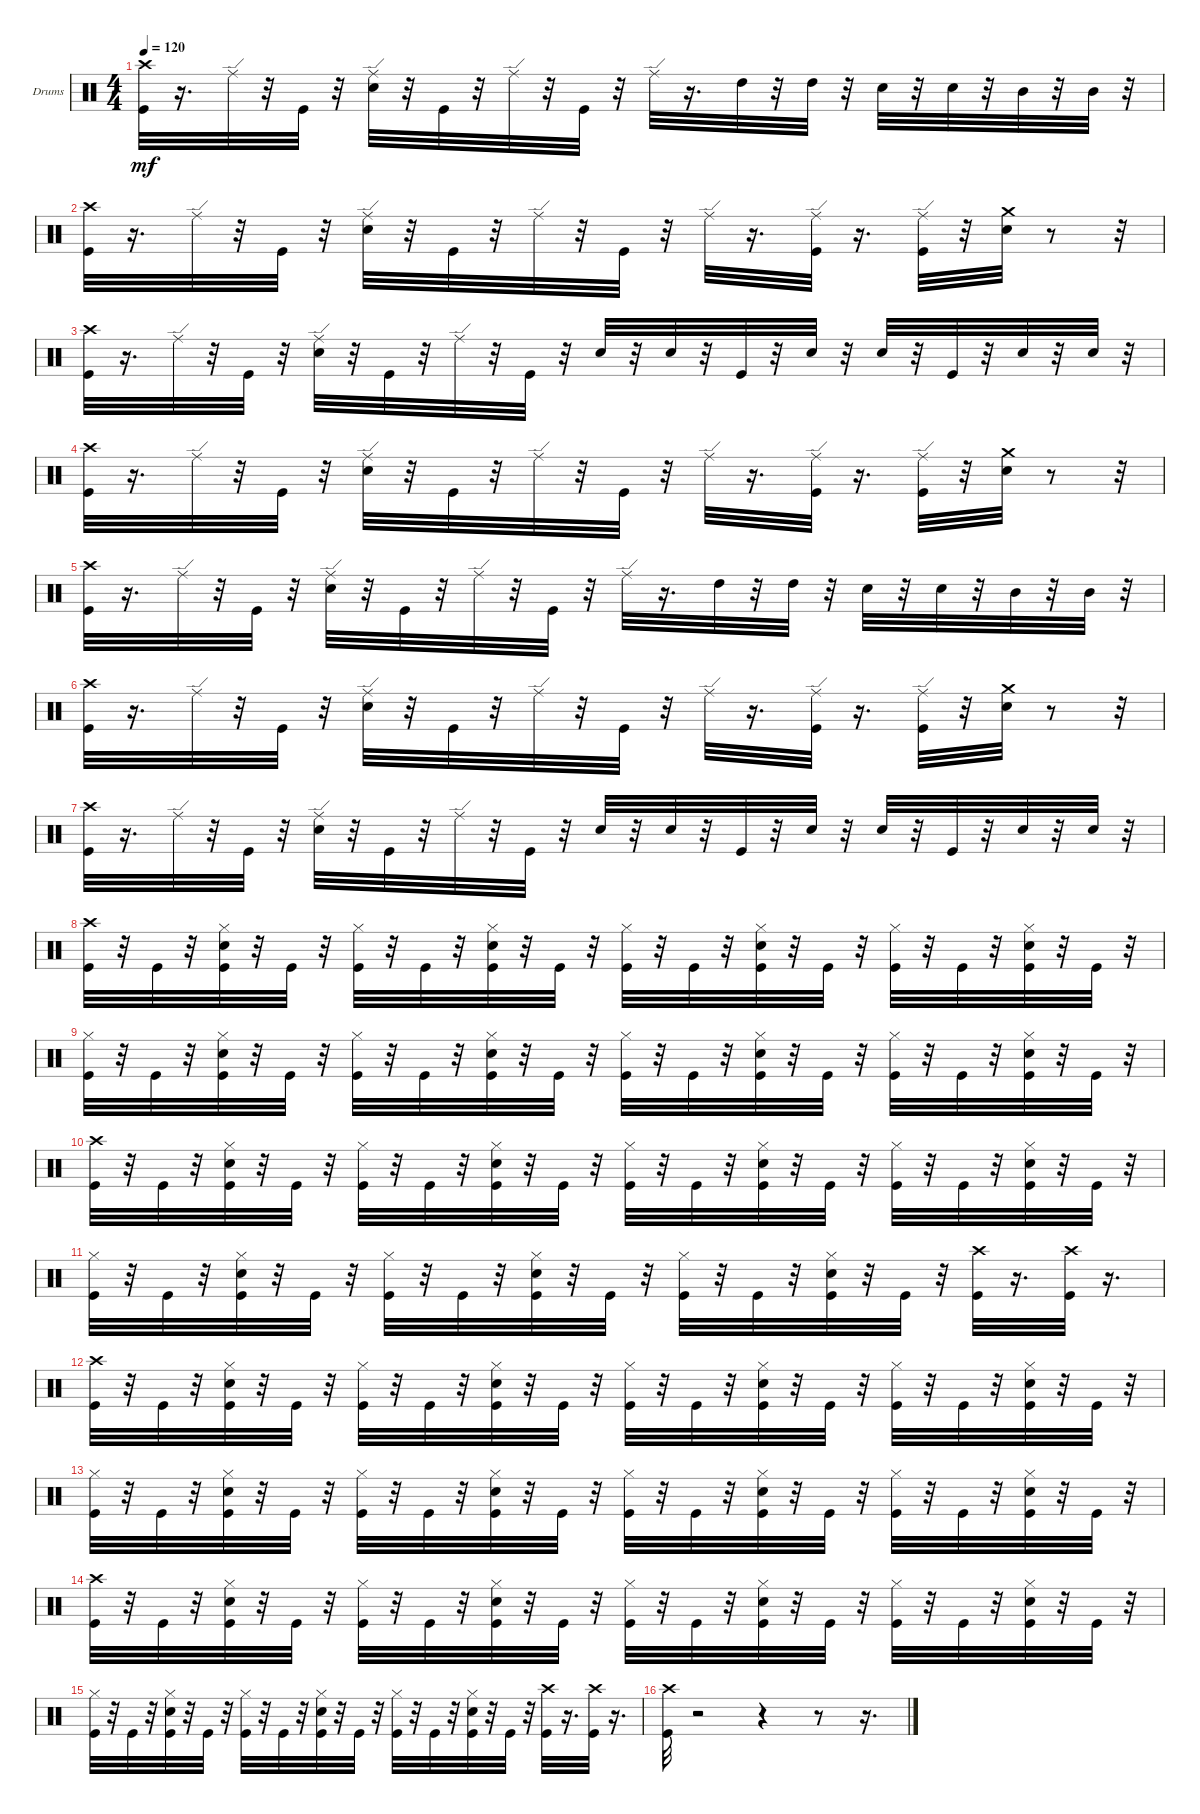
\bracketExtendMode groupsimilarinstruments
\firstSystemTrackNameOrientation horizontal
\otherSystemsTrackNameOrientation horizontal
\track ("" "Drums") {instrument percussion}
\staff {score}
\articulation defaults
\ts (4 4)
\tempo 120
\clef neutral
\ks c
("Crash high (hit)" "Kick (hit)").32{dy mf} r.16{d} "Ride (edge)".32 r.32 "Kick (hit)".32 r.32 ("Ride (edge)" "Snare (hit) 2").32 r.32 "Kick (hit)".32 r.32 "Ride (edge)".32 r.32 "Kick (hit)".32 r.32 "Ride (edge)".32 r.16{d} "High Tom (hit)".32 r.32 "High Tom (hit)".32 r.32 "Snare (hit) 2".32 r.32 "Snare (hit) 2".32 r.32 "Mid Tom (hit)".32 r.32 "Mid Tom (hit)".32 r.32 |
("Crash high (hit)" "Kick (hit)").32 r.16{d} "Ride (edge)".32 r.32 "Kick (hit)".32 r.32 ("Ride (edge)" "Snare (hit) 2").32 r.32 "Kick (hit)".32 r.32 "Ride (edge)".32 r.32 "Kick (hit)".32 r.32 "Ride (edge)".32 r.16{d} ("Ride (edge)" "Kick (hit)").32 r.16{d} ("Ride (edge)" "Kick (hit)").32 r.32 ("Crash medium (hit)" "Snare (hit) 2").32 r.8 r.32 |
("Crash high (hit)" "Kick (hit)").32 r.16{d} "Ride (edge)".32 r.32 "Kick (hit)".32 r.32 ("Snare (hit) 2" "Ride (edge)").32 r.32 "Kick (hit)".32 r.32 "Ride (edge)".32 r.32 "Kick (hit)".32 r.32 "Snare (hit) 2".32 r.32 "Snare (hit) 2".32 r.32 "Kick (hit)".32 r.32 "Snare (hit) 2".32 r.32 "Snare (hit) 2".32 r.32 "Kick (hit)".32 r.32 "Snare (hit) 2".32 r.32 "Snare (hit) 2".32 r.32 |
("Crash high (hit)" "Kick (hit)").32 r.16{d} "Ride (edge)".32 r.32 "Kick (hit)".32 r.32 ("Ride (edge)" "Snare (hit) 2").32 r.32 "Kick (hit)".32 r.32 "Ride (edge)".32 r.32 "Kick (hit)".32 r.32 "Ride (edge)".32 r.16{d} ("Ride (edge)" "Kick (hit)").32 r.16{d} ("Ride (edge)" "Kick (hit)").32 r.32 ("Crash medium (hit)" "Snare (hit) 2").32 r.8 r.32 |
("Crash high (hit)" "Kick (hit)").32 r.16{d} "Ride (edge)".32 r.32 "Kick (hit)".32 r.32 ("Ride (edge)" "Snare (hit) 2").32 r.32 "Kick (hit)".32 r.32 "Ride (edge)".32 r.32 "Kick (hit)".32 r.32 "Ride (edge)".32 r.16{d} "High Tom (hit)".32 r.32 "High Tom (hit)".32 r.32 "Snare (hit) 2".32 r.32 "Snare (hit) 2".32 r.32 "Mid Tom (hit)".32 r.32 "Mid Tom (hit)".32 r.32 |
("Crash high (hit)" "Kick (hit)").32 r.16{d} "Ride (edge)".32 r.32 "Kick (hit)".32 r.32 ("Ride (edge)" "Snare (hit) 2").32 r.32 "Kick (hit)".32 r.32 "Ride (edge)".32 r.32 "Kick (hit)".32 r.32 "Ride (edge)".32 r.16{d} ("Ride (edge)" "Kick (hit)").32 r.16{d} ("Ride (edge)" "Kick (hit)").32 r.32 ("Crash medium (hit)" "Snare (hit) 2").32 r.8 r.32 |
("Crash high (hit)" "Kick (hit)").32 r.16{d} "Ride (edge)".32 r.32 "Kick (hit)".32 r.32 ("Snare (hit) 2" "Ride (edge)").32 r.32 "Kick (hit)".32 r.32 "Ride (edge)".32 r.32 "Kick (hit)".32 r.32 "Snare (hit) 2".32 r.32 "Snare (hit) 2".32 r.32 "Kick (hit)".32 r.32 "Snare (hit) 2".32 r.32 "Snare (hit) 2".32 r.32 "Kick (hit)".32 r.32 "Snare (hit) 2".32 r.32 "Snare (hit) 2".32 r.32 |
("Kick (hit)" "Crash high (hit)").32 r.32 "Kick (hit)".32 r.32 ("Kick (hit)" "Hi-Hat (closed)" "Snare (hit) 2").32 r.32 "Kick (hit)".32 r.32 ("Hi-Hat (closed)" "Kick (hit)").32 r.32 "Kick (hit)".32 r.32 ("Hi-Hat (closed)" "Snare (hit) 2" "Kick (hit)").32 r.32 "Kick (hit)".32 r.32 ("Hi-Hat (closed)" "Kick (hit)").32 r.32 "Kick (hit)".32 r.32 ("Kick (hit)" "Hi-Hat (closed)" "Snare (hit) 2").32 r.32 "Kick (hit)".32 r.32 ("Hi-Hat (closed)" "Kick (hit)").32 r.32 "Kick (hit)".32 r.32 ("Hi-Hat (closed)" "Snare (hit) 2" "Kick (hit)").32 r.32 "Kick (hit)".32 r.32 |
("Hi-Hat (closed)" "Kick (hit)").32 r.32 "Kick (hit)".32 r.32 ("Kick (hit)" "Hi-Hat (closed)" "Snare (hit) 2").32 r.32 "Kick (hit)".32 r.32 ("Hi-Hat (closed)" "Kick (hit)").32 r.32 "Kick (hit)".32 r.32 ("Hi-Hat (closed)" "Snare (hit) 2" "Kick (hit)").32 r.32 "Kick (hit)".32 r.32 ("Hi-Hat (closed)" "Kick (hit)").32 r.32 "Kick (hit)".32 r.32 ("Kick (hit)" "Hi-Hat (closed)" "Snare (hit) 2").32 r.32 "Kick (hit)".32 r.32 ("Hi-Hat (closed)" "Kick (hit)").32 r.32 "Kick (hit)".32 r.32 ("Hi-Hat (closed)" "Snare (hit) 2" "Kick (hit)").32 r.32 "Kick (hit)".32 r.32 |
("Kick (hit)" "Crash high (hit)").32 r.32 "Kick (hit)".32 r.32 ("Kick (hit)" "Hi-Hat (closed)" "Snare (hit) 2").32 r.32 "Kick (hit)".32 r.32 ("Hi-Hat (closed)" "Kick (hit)").32 r.32 "Kick (hit)".32 r.32 ("Hi-Hat (closed)" "Snare (hit) 2" "Kick (hit)").32 r.32 "Kick (hit)".32 r.32 ("Hi-Hat (closed)" "Kick (hit)").32 r.32 "Kick (hit)".32 r.32 ("Kick (hit)" "Hi-Hat (closed)" "Snare (hit) 2").32 r.32 "Kick (hit)".32 r.32 ("Hi-Hat (closed)" "Kick (hit)").32 r.32 "Kick (hit)".32 r.32 ("Hi-Hat (closed)" "Snare (hit) 2" "Kick (hit)").32 r.32 "Kick (hit)".32 r.32 |
("Hi-Hat (closed)" "Kick (hit)").32 r.32 "Kick (hit)".32 r.32 ("Kick (hit)" "Hi-Hat (closed)" "Snare (hit) 2").32 r.32 "Kick (hit)".32 r.32 ("Hi-Hat (closed)" "Kick (hit)").32 r.32 "Kick (hit)".32 r.32 ("Hi-Hat (closed)" "Snare (hit) 2" "Kick (hit)").32 r.32 "Kick (hit)".32 r.32 ("Hi-Hat (closed)" "Kick (hit)").32 r.32 "Kick (hit)".32 r.32 ("Kick (hit)" "Hi-Hat (closed)" "Snare (hit) 2").32 r.32 "Kick (hit)".32 r.32 ("Crash high (hit)" "Kick (hit)").32 r.16{d} ("Crash high (hit)" "Kick (hit)").32 r.16{d} |
("Kick (hit)" "Crash high (hit)").32 r.32 "Kick (hit)".32 r.32 ("Kick (hit)" "Hi-Hat (closed)" "Snare (hit) 2").32 r.32 "Kick (hit)".32 r.32 ("Hi-Hat (closed)" "Kick (hit)").32 r.32 "Kick (hit)".32 r.32 ("Hi-Hat (closed)" "Snare (hit) 2" "Kick (hit)").32 r.32 "Kick (hit)".32 r.32 ("Hi-Hat (closed)" "Kick (hit)").32 r.32 "Kick (hit)".32 r.32 ("Kick (hit)" "Hi-Hat (closed)" "Snare (hit) 2").32 r.32 "Kick (hit)".32 r.32 ("Hi-Hat (closed)" "Kick (hit)").32 r.32 "Kick (hit)".32 r.32 ("Hi-Hat (closed)" "Snare (hit) 2" "Kick (hit)").32 r.32 "Kick (hit)".32 r.32 |
("Hi-Hat (closed)" "Kick (hit)").32 r.32 "Kick (hit)".32 r.32 ("Kick (hit)" "Hi-Hat (closed)" "Snare (hit) 2").32 r.32 "Kick (hit)".32 r.32 ("Hi-Hat (closed)" "Kick (hit)").32 r.32 "Kick (hit)".32 r.32 ("Hi-Hat (closed)" "Snare (hit) 2" "Kick (hit)").32 r.32 "Kick (hit)".32 r.32 ("Hi-Hat (closed)" "Kick (hit)").32 r.32 "Kick (hit)".32 r.32 ("Kick (hit)" "Hi-Hat (closed)" "Snare (hit) 2").32 r.32 "Kick (hit)".32 r.32 ("Hi-Hat (closed)" "Kick (hit)").32 r.32 "Kick (hit)".32 r.32 ("Hi-Hat (closed)" "Snare (hit) 2" "Kick (hit)").32 r.32 "Kick (hit)".32 r.32 |
("Kick (hit)" "Crash high (hit)").32 r.32 "Kick (hit)".32 r.32 ("Kick (hit)" "Hi-Hat (closed)" "Snare (hit) 2").32 r.32 "Kick (hit)".32 r.32 ("Hi-Hat (closed)" "Kick (hit)").32 r.32 "Kick (hit)".32 r.32 ("Hi-Hat (closed)" "Snare (hit) 2" "Kick (hit)").32 r.32 "Kick (hit)".32 r.32 ("Hi-Hat (closed)" "Kick (hit)").32 r.32 "Kick (hit)".32 r.32 ("Kick (hit)" "Hi-Hat (closed)" "Snare (hit) 2").32 r.32 "Kick (hit)".32 r.32 ("Hi-Hat (closed)" "Kick (hit)").32 r.32 "Kick (hit)".32 r.32 ("Hi-Hat (closed)" "Snare (hit) 2" "Kick (hit)").32 r.32 "Kick (hit)".32 r.32 |
("Hi-Hat (closed)" "Kick (hit)").32 r.32 "Kick (hit)".32 r.32 ("Kick (hit)" "Hi-Hat (closed)" "Snare (hit) 2").32 r.32 "Kick (hit)".32 r.32 ("Hi-Hat (closed)" "Kick (hit)").32 r.32 "Kick (hit)".32 r.32 ("Hi-Hat (closed)" "Snare (hit) 2" "Kick (hit)").32 r.32 "Kick (hit)".32 r.32 ("Hi-Hat (closed)" "Kick (hit)").32 r.32 "Kick (hit)".32 r.32 ("Kick (hit)" "Hi-Hat (closed)" "Snare (hit) 2").32 r.32 "Kick (hit)".32 r.32 ("Crash high (hit)" "Kick (hit)").32 r.16{d} ("Crash high (hit)" "Kick (hit)").32 r.16{d} |
("Crash high (hit)" "Kick (hit)").32 r.2 r.4 r.8 r.16{d}
